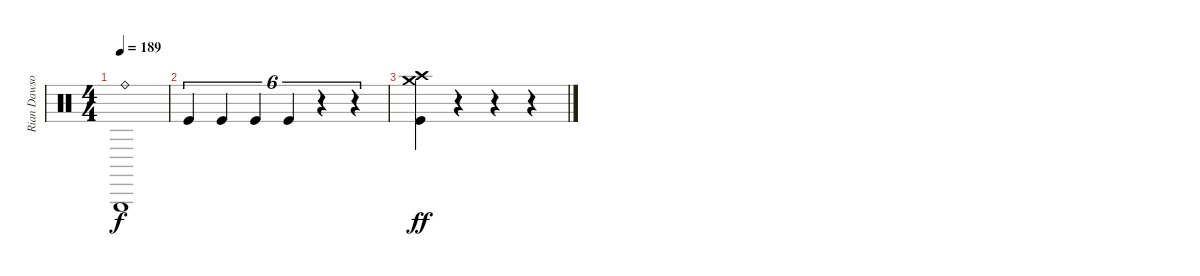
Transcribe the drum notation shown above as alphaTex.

\track ("Rian Dawson" "Rian Dawso") {instrument percussion}
\staff {score}
\articulation defaults
\ts (4 4)
\tempo 189
\clef neutral
\ks c
("Triangle (hit)" "Ride (bell)").1{dy f} |
"Kick (hit)".4{tu (6 4)} "Kick (hit)".4{tu (6 4)} "Kick (hit)".4{tu (6 4)} "Kick (hit)".4{tu (6 4)} r.4{tu (6 4)} r.4{tu (6 4)} |
("Crash high (hit)" "Crash medium (hit)" "Kick (hit)").4{dy ff} r.4 r.4 r.4
